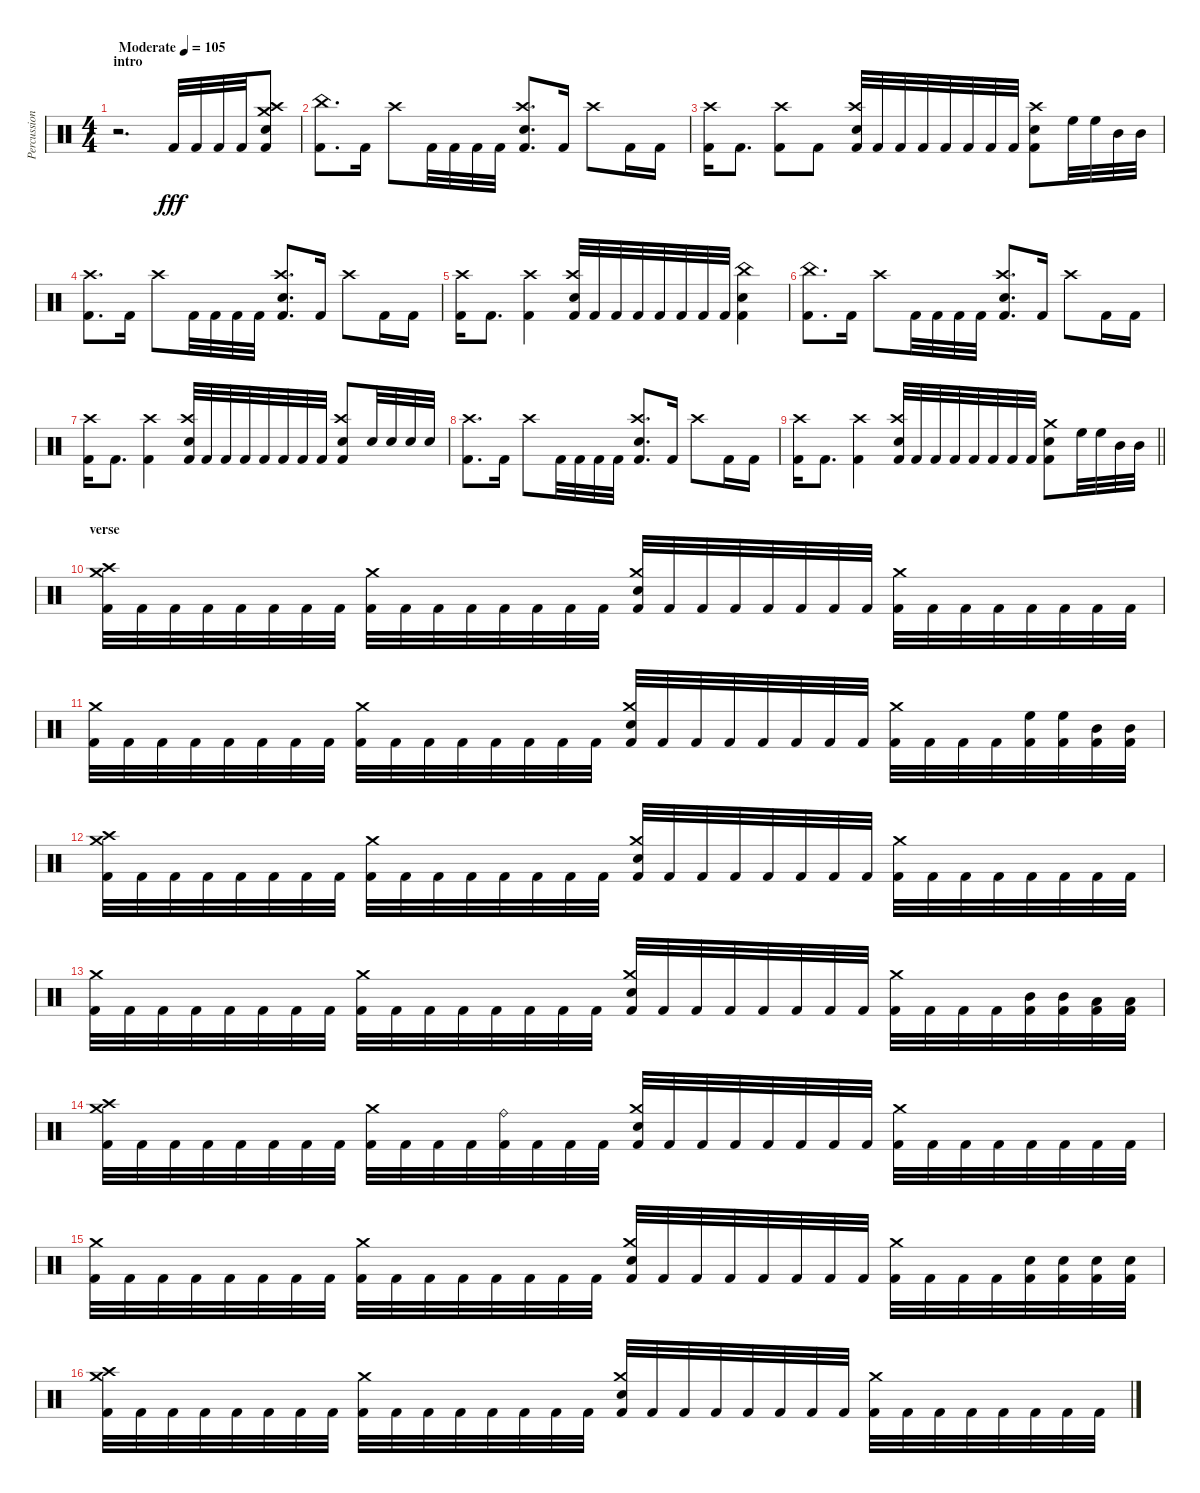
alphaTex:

\track ("Percussion" "Percussion") {instrument percussion}
\staff {score}
\articulation defaults
\ts (4 4)
\section ("" "intro")
\tempo (105 "Moderate")
\clef neutral
\ks c
r.2{d dy fff} "Kick (hit) 2".32 "Kick (hit) 2".32 "Kick (hit) 2".32 "Kick (hit) 2".32 ("Crash medium (hit)" "Crash high (hit)" "Snare (hit) 2" "Kick (hit) 2").8 |
("China (hit)" "Kick (hit) 2").8{d} "Kick (hit) 2".16 "Crash high (hit)".8 "Kick (hit) 2".32 "Kick (hit) 2".32 "Kick (hit) 2".32 "Kick (hit) 2".32 ("Crash high (hit)" "Snare (hit) 2" "Kick (hit) 2").8{d} "Kick (hit) 2".16 "Crash high (hit)".8 "Kick (hit) 2".16 "Kick (hit) 2".16 |
("Crash high (hit)" "Kick (hit) 2").16 "Kick (hit) 2".8{d} ("Crash high (hit)" "Kick (hit) 2").8 "Kick (hit) 2".8 ("Crash high (hit)" "Snare (hit) 2" "Kick (hit) 2").32 "Kick (hit) 2".32 "Kick (hit) 2".32 "Kick (hit) 2".32 "Kick (hit) 2".32 "Kick (hit) 2".32 "Kick (hit) 2".32 "Kick (hit) 2".32 ("Crash high (hit)" "Snare (hit) 2" "Kick (hit) 2").8 "High Floor Tom (hit)".32 "High Floor Tom (hit)".32 "Mid Tom (hit)".32 "Mid Tom (hit)".32 |
("Crash high (hit)" "Kick (hit) 2").8{d} "Kick (hit) 2".16 "Crash high (hit)".8 "Kick (hit) 2".32 "Kick (hit) 2".32 "Kick (hit) 2".32 "Kick (hit) 2".32 ("Crash high (hit)" "Snare (hit) 2" "Kick (hit) 2").8{d} "Kick (hit) 2".16 "Crash high (hit)".8 "Kick (hit) 2".16 "Kick (hit) 2".16 |
("Crash high (hit)" "Kick (hit) 2").16 "Kick (hit) 2".8{d} ("Crash high (hit)" "Kick (hit) 2").4 ("Crash high (hit)" "Snare (hit) 2" "Kick (hit) 2").32 "Kick (hit) 2".32 "Kick (hit) 2".32 "Kick (hit) 2".32 "Kick (hit) 2".32 "Kick (hit) 2".32 "Kick (hit) 2".32 "Kick (hit) 2".32 ("China (hit)" "Snare (hit) 2" "Kick (hit) 2").4 |
("China (hit)" "Kick (hit) 2").8{d} "Kick (hit) 2".16 "Crash high (hit)".8 "Kick (hit) 2".32 "Kick (hit) 2".32 "Kick (hit) 2".32 "Kick (hit) 2".32 ("Crash high (hit)" "Snare (hit) 2" "Kick (hit) 2").8{d} "Kick (hit) 2".16 "Crash high (hit)".8 "Kick (hit) 2".16 "Kick (hit) 2".16 |
("Crash high (hit)" "Kick (hit) 2").16 "Kick (hit) 2".8{d} ("Crash high (hit)" "Kick (hit) 2").4 ("Crash high (hit)" "Snare (hit) 2" "Kick (hit) 2").32 "Kick (hit) 2".32 "Kick (hit) 2".32 "Kick (hit) 2".32 "Kick (hit) 2".32 "Kick (hit) 2".32 "Kick (hit) 2".32 "Kick (hit) 2".32 ("Crash high (hit)" "Snare (hit) 2" "Kick (hit) 2").8 "Snare (hit) 2".32 "Snare (hit) 2".32 "Snare (hit) 2".32 "Snare (hit) 2".32 |
("Crash high (hit)" "Kick (hit) 2").8{d} "Kick (hit) 2".16 "Crash high (hit)".8 "Kick (hit) 2".32 "Kick (hit) 2".32 "Kick (hit) 2".32 "Kick (hit) 2".32 ("Crash high (hit)" "Snare (hit) 2" "Kick (hit) 2").8{d} "Kick (hit) 2".16 "Crash high (hit)".8 "Kick (hit) 2".16 "Kick (hit) 2".16 |
\barLineRight lightlight
("Crash high (hit)" "Kick (hit) 2").16 "Kick (hit) 2".8{d} ("Crash high (hit)" "Kick (hit) 2").4 ("Crash high (hit)" "Snare (hit) 2" "Kick (hit) 2").32 "Kick (hit) 2".32 "Kick (hit) 2".32 "Kick (hit) 2".32 "Kick (hit) 2".32 "Kick (hit) 2".32 "Kick (hit) 2".32 "Kick (hit) 2".32 ("Crash medium (hit)" "Snare (hit) 2" "Kick (hit) 2").8 "High Floor Tom (hit)".32 "High Floor Tom (hit)".32 "Mid Tom (hit)".32 "Mid Tom (hit)".32 |
\section ("" "verse")
("Crash medium (hit)" "Crash high (hit)" "Kick (hit) 2").32 "Kick (hit) 2".32 "Kick (hit) 2".32 "Kick (hit) 2".32 "Kick (hit) 2".32 "Kick (hit) 2".32 "Kick (hit) 2".32 "Kick (hit) 2".32 ("Crash medium (hit)" "Kick (hit) 2").32 "Kick (hit) 2".32 "Kick (hit) 2".32 "Kick (hit) 2".32 "Kick (hit) 2".32 "Kick (hit) 2".32 "Kick (hit) 2".32 "Kick (hit) 2".32 ("Crash medium (hit)" "Snare (hit) 2" "Kick (hit) 2").32 "Kick (hit) 2".32 "Kick (hit) 2".32 "Kick (hit) 2".32 "Kick (hit) 2".32 "Kick (hit) 2".32 "Kick (hit) 2".32 "Kick (hit) 2".32 ("Crash medium (hit)" "Kick (hit) 2").32 "Kick (hit) 2".32 "Kick (hit) 2".32 "Kick (hit) 2".32 "Kick (hit) 2".32 "Kick (hit) 2".32 "Kick (hit) 2".32 "Kick (hit) 2".32 |
("Crash medium (hit)" "Kick (hit) 2").32 "Kick (hit) 2".32 "Kick (hit) 2".32 "Kick (hit) 2".32 "Kick (hit) 2".32 "Kick (hit) 2".32 "Kick (hit) 2".32 "Kick (hit) 2".32 ("Crash medium (hit)" "Kick (hit) 2").32 "Kick (hit) 2".32 "Kick (hit) 2".32 "Kick (hit) 2".32 "Kick (hit) 2".32 "Kick (hit) 2".32 "Kick (hit) 2".32 "Kick (hit) 2".32 ("Crash medium (hit)" "Snare (hit) 2" "Kick (hit) 2").32 "Kick (hit) 2".32 "Kick (hit) 2".32 "Kick (hit) 2".32 "Kick (hit) 2".32 "Kick (hit) 2".32 "Kick (hit) 2".32 "Kick (hit) 2".32 ("Crash medium (hit)" "Kick (hit) 2").32 "Kick (hit) 2".32 "Kick (hit) 2".32 "Kick (hit) 2".32 ("High Floor Tom (hit)" "Kick (hit) 2").32 ("High Floor Tom (hit)" "Kick (hit) 2").32 ("Mid Tom (hit)" "Kick (hit) 2").32 ("Mid Tom (hit)" "Kick (hit) 2").32 |
("Crash medium (hit)" "Crash high (hit)" "Kick (hit) 2").32 "Kick (hit) 2".32 "Kick (hit) 2".32 "Kick (hit) 2".32 "Kick (hit) 2".32 "Kick (hit) 2".32 "Kick (hit) 2".32 "Kick (hit) 2".32 ("Crash medium (hit)" "Kick (hit) 2").32 "Kick (hit) 2".32 "Kick (hit) 2".32 "Kick (hit) 2".32 "Kick (hit) 2".32 "Kick (hit) 2".32 "Kick (hit) 2".32 "Kick (hit) 2".32 ("Crash medium (hit)" "Snare (hit) 2" "Kick (hit) 2").32 "Kick (hit) 2".32 "Kick (hit) 2".32 "Kick (hit) 2".32 "Kick (hit) 2".32 "Kick (hit) 2".32 "Kick (hit) 2".32 "Kick (hit) 2".32 ("Crash medium (hit)" "Kick (hit) 2").32 "Kick (hit) 2".32 "Kick (hit) 2".32 "Kick (hit) 2".32 "Kick (hit) 2".32 "Kick (hit) 2".32 "Kick (hit) 2".32 "Kick (hit) 2".32 |
("Crash medium (hit)" "Kick (hit) 2").32 "Kick (hit) 2".32 "Kick (hit) 2".32 "Kick (hit) 2".32 "Kick (hit) 2".32 "Kick (hit) 2".32 "Kick (hit) 2".32 "Kick (hit) 2".32 ("Crash medium (hit)" "Kick (hit) 2").32 "Kick (hit) 2".32 "Kick (hit) 2".32 "Kick (hit) 2".32 "Kick (hit) 2".32 "Kick (hit) 2".32 "Kick (hit) 2".32 "Kick (hit) 2".32 ("Crash medium (hit)" "Snare (hit) 2" "Kick (hit) 2").32 "Kick (hit) 2".32 "Kick (hit) 2".32 "Kick (hit) 2".32 "Kick (hit) 2".32 "Kick (hit) 2".32 "Kick (hit) 2".32 "Kick (hit) 2".32 ("Crash medium (hit)" "Kick (hit) 2").32 "Kick (hit) 2".32 "Kick (hit) 2".32 "Kick (hit) 2".32 ("Mid Tom (hit)" "Kick (hit) 2").32 ("Mid Tom (hit)" "Kick (hit) 2").32 ("Low Tom (hit)" "Kick (hit) 2").32 ("Low Tom (hit)" "Kick (hit) 2").32 |
("Crash medium (hit)" "Crash high (hit)" "Kick (hit) 2").32 "Kick (hit) 2".32 "Kick (hit) 2".32 "Kick (hit) 2".32 "Kick (hit) 2".32 "Kick (hit) 2".32 "Kick (hit) 2".32 "Kick (hit) 2".32 ("Crash medium (hit)" "Kick (hit) 2").32 "Kick (hit) 2".32 "Kick (hit) 2".32 "Kick (hit) 2".32 ("Ride (bell)" "Kick (hit) 2").32 "Kick (hit) 2".32 "Kick (hit) 2".32 "Kick (hit) 2".32 ("Crash medium (hit)" "Snare (hit) 2" "Kick (hit) 2").32 "Kick (hit) 2".32 "Kick (hit) 2".32 "Kick (hit) 2".32 "Kick (hit) 2".32 "Kick (hit) 2".32 "Kick (hit) 2".32 "Kick (hit) 2".32 ("Crash medium (hit)" "Kick (hit) 2").32 "Kick (hit) 2".32 "Kick (hit) 2".32 "Kick (hit) 2".32 "Kick (hit) 2".32 "Kick (hit) 2".32 "Kick (hit) 2".32 "Kick (hit) 2".32 |
("Crash medium (hit)" "Kick (hit) 2").32 "Kick (hit) 2".32 "Kick (hit) 2".32 "Kick (hit) 2".32 "Kick (hit) 2".32 "Kick (hit) 2".32 "Kick (hit) 2".32 "Kick (hit) 2".32 ("Crash medium (hit)" "Kick (hit) 2").32 "Kick (hit) 2".32 "Kick (hit) 2".32 "Kick (hit) 2".32 "Kick (hit) 2".32 "Kick (hit) 2".32 "Kick (hit) 2".32 "Kick (hit) 2".32 ("Crash medium (hit)" "Snare (hit) 2" "Kick (hit) 2").32 "Kick (hit) 2".32 "Kick (hit) 2".32 "Kick (hit) 2".32 "Kick (hit) 2".32 "Kick (hit) 2".32 "Kick (hit) 2".32 "Kick (hit) 2".32 ("Crash medium (hit)" "Kick (hit) 2").32 "Kick (hit) 2".32 "Kick (hit) 2".32 "Kick (hit) 2".32 ("Snare (hit) 2" "Kick (hit) 2").32 ("Snare (hit) 2" "Kick (hit) 2").32 ("Snare (hit) 2" "Kick (hit) 2").32 ("Snare (hit) 2" "Kick (hit) 2").32 |
("Crash medium (hit)" "Crash high (hit)" "Kick (hit) 2").32 "Kick (hit) 2".32 "Kick (hit) 2".32 "Kick (hit) 2".32 "Kick (hit) 2".32 "Kick (hit) 2".32 "Kick (hit) 2".32 "Kick (hit) 2".32 ("Crash medium (hit)" "Kick (hit) 2").32 "Kick (hit) 2".32 "Kick (hit) 2".32 "Kick (hit) 2".32 "Kick (hit) 2".32 "Kick (hit) 2".32 "Kick (hit) 2".32 "Kick (hit) 2".32 ("Crash medium (hit)" "Snare (hit) 2" "Kick (hit) 2").32 "Kick (hit) 2".32 "Kick (hit) 2".32 "Kick (hit) 2".32 "Kick (hit) 2".32 "Kick (hit) 2".32 "Kick (hit) 2".32 "Kick (hit) 2".32 ("Crash medium (hit)" "Kick (hit) 2").32 "Kick (hit) 2".32 "Kick (hit) 2".32 "Kick (hit) 2".32 "Kick (hit) 2".32 "Kick (hit) 2".32 "Kick (hit) 2".32 "Kick (hit) 2".32
